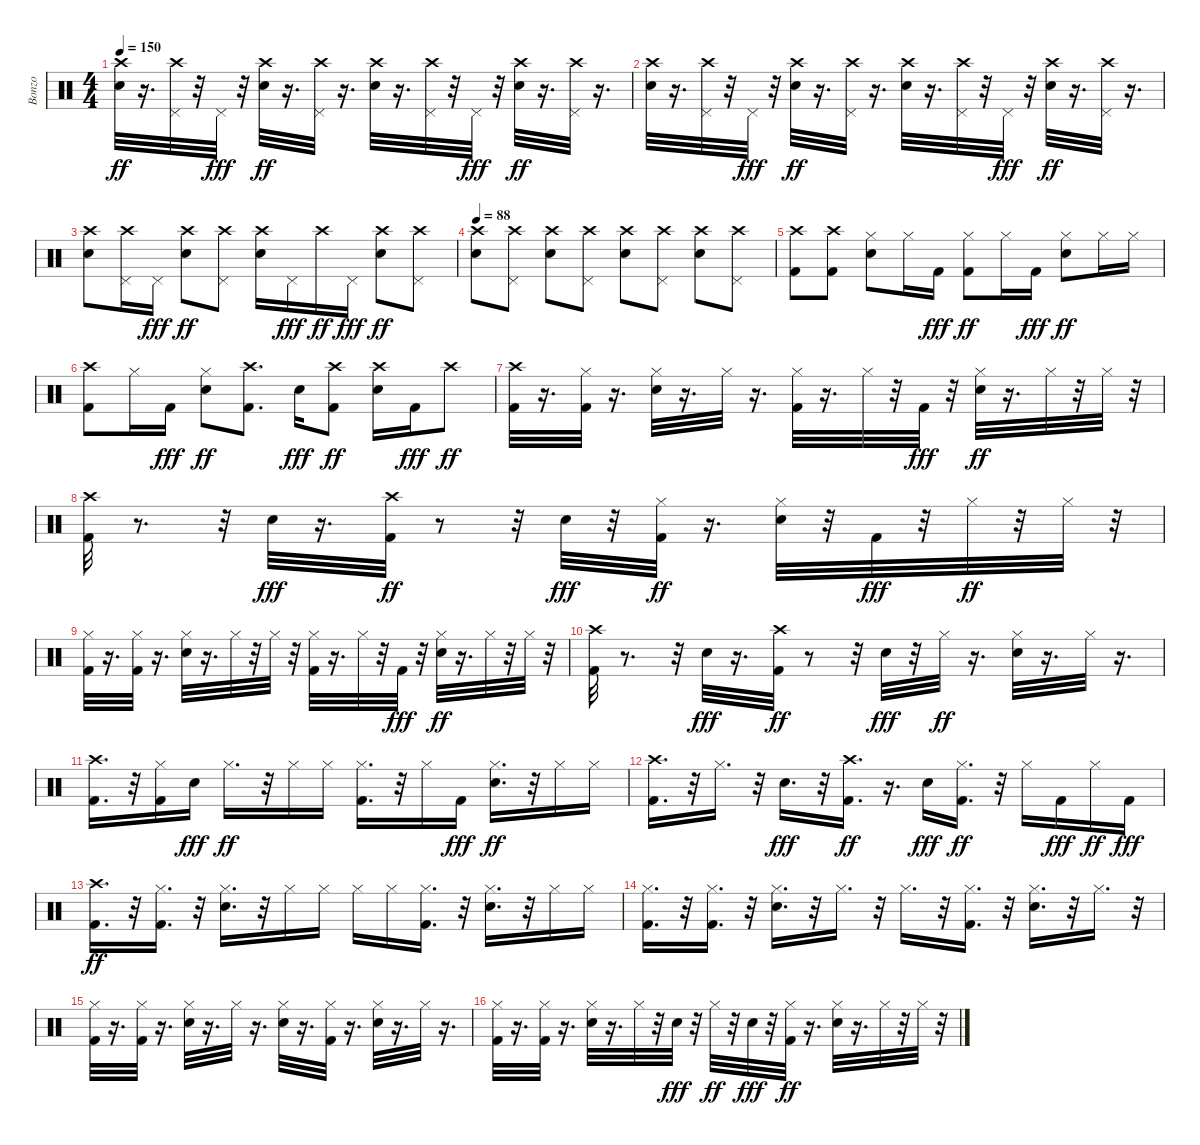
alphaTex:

\track ("Bonzo" "Bonzo") {instrument percussion}
\staff {score}
\articulation defaults
\ts (4 4)
\tempo 150
\clef neutral
\ks c
("Snare (hit) 2" "Crash high (hit)").32{dy ff} r.16{d} ("Pedal Hi-Hat (hit)" "Crash high (hit)").32 r.32 "Pedal Hi-Hat (hit)".32{dy fff} r.32 ("Snare (hit) 2" "Crash high (hit)").32{dy ff} r.16{d} ("Pedal Hi-Hat (hit)" "Crash high (hit)").32 r.16{d} ("Snare (hit) 2" "Crash high (hit)").32 r.16{d} ("Pedal Hi-Hat (hit)" "Crash high (hit)").32 r.32 "Pedal Hi-Hat (hit)".32{dy fff} r.32 ("Snare (hit) 2" "Crash high (hit)").32{dy ff} r.16{d} ("Pedal Hi-Hat (hit)" "Crash high (hit)").32 r.16{d} |
("Snare (hit) 2" "Crash high (hit)").32 r.16{d} ("Pedal Hi-Hat (hit)" "Crash high (hit)").32 r.32 "Pedal Hi-Hat (hit)".32{dy fff} r.32 ("Snare (hit) 2" "Crash high (hit)").32{dy ff} r.16{d} ("Pedal Hi-Hat (hit)" "Crash high (hit)").32 r.16{d} ("Snare (hit) 2" "Crash high (hit)").32 r.16{d} ("Pedal Hi-Hat (hit)" "Crash high (hit)").32 r.32 "Pedal Hi-Hat (hit)".32{dy fff} r.32 ("Snare (hit) 2" "Crash high (hit)").32{dy ff} r.16{d} ("Pedal Hi-Hat (hit)" "Crash high (hit)").32 r.16{d} |
("Snare (hit) 2" "Crash high (hit)").8 ("Pedal Hi-Hat (hit)" "Crash high (hit)").16 "Pedal Hi-Hat (hit)".16{dy fff} ("Snare (hit) 2" "Crash high (hit)").8{dy ff} ("Pedal Hi-Hat (hit)" "Crash high (hit)").8 ("Snare (hit) 2" "Crash high (hit)").16 "Pedal Hi-Hat (hit)".16{dy fff} "Crash high (hit)".16{dy ff} "Pedal Hi-Hat (hit)".16{dy fff} ("Snare (hit) 2" "Crash high (hit)").8{dy ff} ("Pedal Hi-Hat (hit)" "Crash high (hit)").8 |
\tempo 88
("Snare (hit) 2" "Crash high (hit)").8 ("Pedal Hi-Hat (hit)" "Crash high (hit)").8 ("Snare (hit) 2" "Crash high (hit)").8 ("Pedal Hi-Hat (hit)" "Crash high (hit)").8 ("Snare (hit) 2" "Crash high (hit)").8 ("Pedal Hi-Hat (hit)" "Crash high (hit)").8 ("Snare (hit) 2" "Crash high (hit)").8 ("Pedal Hi-Hat (hit)" "Crash high (hit)").8 |
("Kick (hit) 2" "Crash high (hit)").8 ("Kick (hit) 2" "Crash high (hit)").8 ("Snare (hit) 2" "Hi-Hat (closed)").8 "Hi-Hat (closed)".16 "Kick (hit) 2".16{dy fff} ("Kick (hit) 2" "Hi-Hat (closed)").8{dy ff} "Hi-Hat (closed)".16 "Kick (hit) 2".16{dy fff} ("Snare (hit) 2" "Hi-Hat (closed)").8{dy ff} "Hi-Hat (closed)".16 "Hi-Hat (closed)".16 |
("Kick (hit) 2" "Crash high (hit)").8 "Hi-Hat (closed)".16 "Kick (hit) 2".16{dy fff} ("Snare (hit) 2" "Hi-Hat (closed)").8{dy ff} ("Kick (hit) 2" "Crash high (hit)").8{d} "Snare (hit) 2".16{dy fff} ("Kick (hit) 2" "Crash high (hit)").8{dy ff} ("Snare (hit) 2" "Crash high (hit)").16 "Kick (hit) 2".16{dy fff} "Crash high (hit)".8{dy ff} |
("Kick (hit) 2" "Crash high (hit)").32 r.16{d} ("Kick (hit) 2" "Hi-Hat (closed)").32 r.16{d} ("Snare (hit) 2" "Hi-Hat (closed)").32 r.16{d} "Hi-Hat (closed)".32 r.16{d} ("Kick (hit) 2" "Hi-Hat (closed)").32 r.16{d} "Hi-Hat (closed)".32 r.32 "Kick (hit) 2".32{dy fff} r.32 ("Snare (hit) 2" "Hi-Hat (closed)").32{dy ff} r.16{d} "Hi-Hat (closed)".32 r.32 "Hi-Hat (closed)".32 r.32 |
("Kick (hit) 2" "Crash high (hit)").32 r.8{d} r.32 "Snare (hit) 2".32{dy fff} r.16{d} ("Kick (hit) 2" "Crash high (hit)").32{dy ff} r.8 r.32 "Snare (hit) 2".32{dy fff} r.32 ("Kick (hit) 2" "Hi-Hat (closed)").32{dy ff} r.16{d} ("Snare (hit) 2" "Hi-Hat (closed)").32 r.32 "Kick (hit) 2".32{dy fff} r.32 "Hi-Hat (closed)".32{dy ff} r.32 "Hi-Hat (closed)".32 r.32 |
("Kick (hit) 2" "Hi-Hat (closed)").32 r.16{d} ("Kick (hit) 2" "Hi-Hat (closed)").32 r.16{d} ("Snare (hit) 2" "Hi-Hat (closed)").32 r.16{d} "Hi-Hat (closed)".32 r.32 "Hi-Hat (closed)".32 r.32 ("Kick (hit) 2" "Hi-Hat (closed)").32 r.16{d} "Hi-Hat (closed)".32 r.32 "Kick (hit) 2".32{dy fff} r.32 ("Snare (hit) 2" "Hi-Hat (closed)").32{dy ff} r.16{d} "Hi-Hat (closed)".32 r.32 "Hi-Hat (closed)".32 r.32 |
("Kick (hit) 2" "Crash high (hit)").32 r.8{d} r.32 "Snare (hit) 2".32{dy fff} r.16{d} ("Kick (hit) 2" "Crash high (hit)").32{dy ff} r.8 r.32 "Snare (hit) 2".32{dy fff} r.32 "Hi-Hat (closed)".32{dy ff} r.16{d} ("Snare (hit) 2" "Hi-Hat (closed)").32 r.16{d} "Hi-Hat (closed)".32 r.16{d} |
("Kick (hit) 2" "Crash high (hit)").16{d} r.32 ("Kick (hit) 2" "Hi-Hat (closed)").16 "Snare (hit) 2".16{dy fff} "Hi-Hat (closed)".16{d dy ff} r.32 "Hi-Hat (closed)".16 "Hi-Hat (closed)".16 ("Kick (hit) 2" "Hi-Hat (closed)").16{d} r.32 "Hi-Hat (closed)".16 "Kick (hit) 2".16{dy fff} ("Snare (hit) 2" "Hi-Hat (closed)").16{d dy ff} r.32 "Hi-Hat (closed)".16 "Hi-Hat (closed)".16 |
("Kick (hit) 2" "Crash high (hit)").16{d} r.32 "Hi-Hat (closed)".16{d} r.32 "Snare (hit) 2".16{d dy fff} r.32 ("Kick (hit) 2" "Crash high (hit)").16{d dy ff} r.16{d} "Snare (hit) 2".16{dy fff} ("Kick (hit) 2" "Hi-Hat (closed)").16{d dy ff} r.32 "Hi-Hat (closed)".16 "Kick (hit) 2".16{dy fff} "Hi-Hat (closed)".16{dy ff} "Kick (hit) 2".16{dy fff} |
("Kick (hit) 2" "Crash high (hit)").16{d dy ff} r.32 ("Kick (hit) 2" "Hi-Hat (closed)").16{d} r.32 ("Snare (hit) 2" "Hi-Hat (closed)").16{d} r.32 "Hi-Hat (closed)".16 "Hi-Hat (closed)".16 "Hi-Hat (closed)".16 "Hi-Hat (closed)".16 ("Kick (hit) 2" "Hi-Hat (closed)").16{d} r.32 ("Snare (hit) 2" "Hi-Hat (closed)").16{d} r.32 "Hi-Hat (closed)".16 "Hi-Hat (closed)".16 |
("Kick (hit) 2" "Hi-Hat (closed)").16{d} r.32 ("Kick (hit) 2" "Hi-Hat (closed)").16{d} r.32 ("Snare (hit) 2" "Hi-Hat (closed)").16{d} r.32 "Hi-Hat (closed)".16{d} r.32 "Hi-Hat (closed)".16{d} r.32 ("Kick (hit) 2" "Hi-Hat (closed)").16{d} r.32 ("Snare (hit) 2" "Hi-Hat (closed)").16{d} r.32 "Hi-Hat (closed)".16{d} r.32 |
("Kick (hit) 2" "Hi-Hat (closed)").32 r.16{d} ("Kick (hit) 2" "Hi-Hat (closed)").32 r.16{d} ("Snare (hit) 2" "Hi-Hat (closed)").32 r.16{d} "Hi-Hat (closed)".32 r.16{d} ("Snare (hit) 2" "Hi-Hat (closed)").32 r.16{d} ("Kick (hit) 2" "Hi-Hat (closed)").32 r.16{d} ("Snare (hit) 2" "Hi-Hat (closed)").32 r.16{d} "Hi-Hat (closed)".32 r.16{d} |
("Kick (hit) 2" "Hi-Hat (closed)").32 r.16{d} ("Kick (hit) 2" "Hi-Hat (closed)").32 r.16{d} ("Snare (hit) 2" "Hi-Hat (closed)").32 r.16{d} "Hi-Hat (closed)".32 r.32 "Snare (hit) 2".32{dy fff} r.32 "Hi-Hat (closed)".32{dy ff} r.32 "Snare (hit) 2".32{dy fff} r.32 ("Kick (hit) 2" "Hi-Hat (closed)").32{dy ff} r.16{d} ("Snare (hit) 2" "Hi-Hat (closed)").32 r.16{d} "Hi-Hat (closed)".32 r.32 "Hi-Hat (closed)".32 r.32
